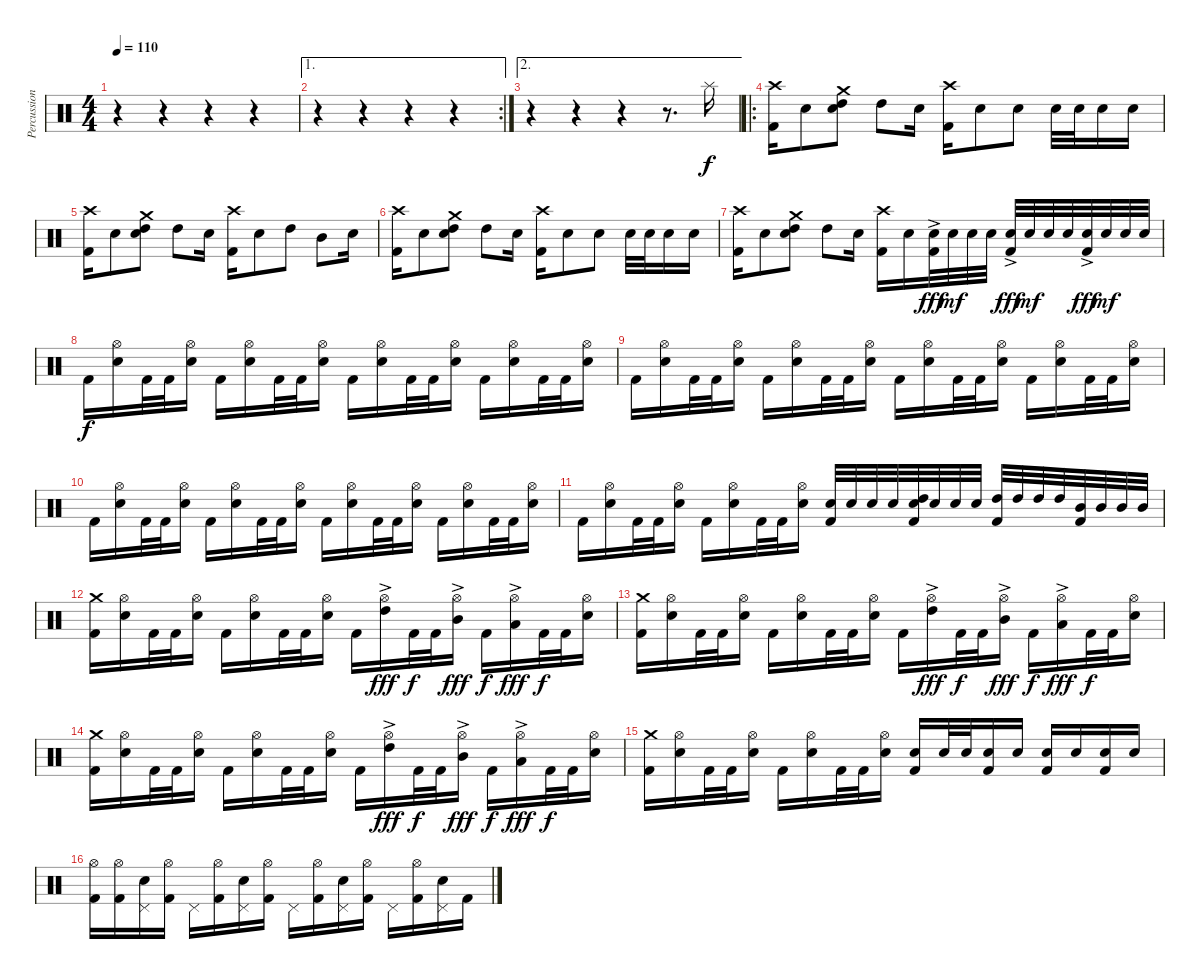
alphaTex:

\track ("Percussion" "Percussion") {instrument percussion}
\staff {score}
\articulation defaults
\ts (4 4)
\tempo 110
\clef neutral
\ks c
r.4{dy f} r.4 r.4 r.4 |
\ae 1
\rc 2
r.4 r.4 r.4 r.4 |
\ae 2
r.4 r.4 r.4 r.8{d} "Splash (hit)".16 |
\ro
("Crash high (hit)" "Kick (hit) 2").16 "Electric Snare (hit)".8 ("Crash medium (hit)" "High Tom (hit)" "Electric Snare (hit)").8 "High Tom (hit)".8 "Electric Snare (hit)".16 ("Crash high (hit)" "Kick (hit) 2").16 "Electric Snare (hit)".8 "Electric Snare (hit)".8 "Electric Snare (hit)".32 "Electric Snare (hit)".32 "Electric Snare (hit)".16 "Electric Snare (hit)".16 |
("Crash high (hit)" "Kick (hit) 2").16 "Electric Snare (hit)".8 ("Crash medium (hit)" "High Tom (hit)" "Electric Snare (hit)").8 "High Tom (hit)".8 "Electric Snare (hit)".16 ("Crash high (hit)" "Kick (hit) 2").16 "Electric Snare (hit)".8 "High Tom (hit)".8 "Mid Tom (hit)".8 "Electric Snare (hit)".16 |
("Crash high (hit)" "Kick (hit) 2").16 "Electric Snare (hit)".8 ("Crash medium (hit)" "High Tom (hit)" "Electric Snare (hit)").8 "High Tom (hit)".8 "Electric Snare (hit)".16 ("Crash high (hit)" "Kick (hit) 2").16 "Electric Snare (hit)".8 "Electric Snare (hit)".8 "Electric Snare (hit)".32 "Electric Snare (hit)".32 "Electric Snare (hit)".16 "Electric Snare (hit)".16 |
("Crash high (hit)" "Kick (hit) 2").16 "Electric Snare (hit)".8 ("Crash medium (hit)" "High Tom (hit)" "Electric Snare (hit)").8 "High Tom (hit)".8 "Electric Snare (hit)".16 ("Crash high (hit)" "Kick (hit) 2").16 "Electric Snare (hit)".16 ("Electric Snare (hit)"{ac} "Kick (hit) 2").32{dy fff} "Electric Snare (hit)".32{dy mf} "Electric Snare (hit)".32 "Electric Snare (hit)".32 ("Electric Snare (hit)"{ac} "Kick (hit) 2").32{dy fff} "Electric Snare (hit)".32{dy mf} "Electric Snare (hit)".32 "Electric Snare (hit)".32 ("Electric Snare (hit)"{ac} "Kick (hit) 2").32{dy fff} "Electric Snare (hit)".32{dy mf} "Electric Snare (hit)".32 "Electric Snare (hit)".32 |
"Kick (hit) 2".16{dy f} ("Hi-Hat (open)" "Electric Snare (hit)").16 "Kick (hit) 2".32 "Kick (hit) 2".32 ("Hi-Hat (open)" "Electric Snare (hit)").16 "Kick (hit) 2".16 ("Hi-Hat (open)" "Electric Snare (hit)").16 "Kick (hit) 2".32 "Kick (hit) 2".32 ("Hi-Hat (open)" "Electric Snare (hit)").16 "Kick (hit) 2".16 ("Hi-Hat (open)" "Electric Snare (hit)").16 "Kick (hit) 2".32 "Kick (hit) 2".32 ("Hi-Hat (open)" "Electric Snare (hit)").16 "Kick (hit) 2".16 ("Hi-Hat (open)" "Electric Snare (hit)").16 "Kick (hit) 2".32 "Kick (hit) 2".32 ("Hi-Hat (open)" "Electric Snare (hit)").16 |
"Kick (hit) 2".16 ("Hi-Hat (open)" "Electric Snare (hit)").16 "Kick (hit) 2".32 "Kick (hit) 2".32 ("Hi-Hat (open)" "Electric Snare (hit)").16 "Kick (hit) 2".16 ("Hi-Hat (open)" "Electric Snare (hit)").16 "Kick (hit) 2".32 "Kick (hit) 2".32 ("Hi-Hat (open)" "Electric Snare (hit)").16 "Kick (hit) 2".16 ("Hi-Hat (open)" "Electric Snare (hit)").16 "Kick (hit) 2".32 "Kick (hit) 2".32 ("Hi-Hat (open)" "Electric Snare (hit)").16 "Kick (hit) 2".16 ("Hi-Hat (open)" "Electric Snare (hit)").16 "Kick (hit) 2".32 "Kick (hit) 2".32 ("Hi-Hat (open)" "Electric Snare (hit)").16 |
"Kick (hit) 2".16 ("Hi-Hat (open)" "Electric Snare (hit)").16 "Kick (hit) 2".32 "Kick (hit) 2".32 ("Hi-Hat (open)" "Electric Snare (hit)").16 "Kick (hit) 2".16 ("Hi-Hat (open)" "Electric Snare (hit)").16 "Kick (hit) 2".32 "Kick (hit) 2".32 ("Hi-Hat (open)" "Electric Snare (hit)").16 "Kick (hit) 2".16 ("Hi-Hat (open)" "Electric Snare (hit)").16 "Kick (hit) 2".32 "Kick (hit) 2".32 ("Hi-Hat (open)" "Electric Snare (hit)").16 "Kick (hit) 2".16 ("Hi-Hat (open)" "Electric Snare (hit)").16 "Kick (hit) 2".32 "Kick (hit) 2".32 ("Hi-Hat (open)" "Electric Snare (hit)").16 |
"Kick (hit) 2".16 ("Hi-Hat (open)" "Electric Snare (hit)").16 "Kick (hit) 2".32 "Kick (hit) 2".32 ("Hi-Hat (open)" "Electric Snare (hit)").16 "Kick (hit) 2".16 ("Hi-Hat (open)" "Electric Snare (hit)").16 "Kick (hit) 2".32 "Kick (hit) 2".32 ("Hi-Hat (open)" "Electric Snare (hit)").16 ("Electric Snare (hit)" "Kick (hit) 2").32 "Electric Snare (hit)".32 "Electric Snare (hit)".32 "Electric Snare (hit)".32 ("High Tom (hit)" "Electric Snare (hit)" "Kick (hit) 2").32 "Electric Snare (hit)".32 "Electric Snare (hit)".32 "Electric Snare (hit)".32 ("High Tom (hit)" "Kick (hit) 2").32 "High Tom (hit)".32 "High Tom (hit)".32 "High Tom (hit)".32 ("Mid Tom (hit)" "Kick (hit) 2").32 "Mid Tom (hit)".32 "Mid Tom (hit)".32 "Mid Tom (hit)".32 |
("Crash medium (hit)" "Kick (hit) 2").16 ("Hi-Hat (open)" "Electric Snare (hit)").16 "Kick (hit) 2".32 "Kick (hit) 2".32 ("Hi-Hat (open)" "Electric Snare (hit)").16 "Kick (hit) 2".16 ("Hi-Hat (open)" "Electric Snare (hit)").16 "Kick (hit) 2".32 "Kick (hit) 2".32 ("Hi-Hat (open)" "Electric Snare (hit)").16 "Kick (hit) 2".16 ("Hi-Hat (open)" "High Tom (hit)"{ac}).16{dy fff} "Kick (hit) 2".32{dy f} "Kick (hit) 2".32 ("Hi-Hat (open)" "Mid Tom (hit)"{ac}).16{dy fff} "Kick (hit) 2".16{dy f} ("Hi-Hat (open)" "Low Tom (hit)"{ac}).16{dy fff} "Kick (hit) 2".32{dy f} "Kick (hit) 2".32 ("Hi-Hat (open)" "Electric Snare (hit)").16 |
("Crash medium (hit)" "Kick (hit) 2").16 ("Hi-Hat (open)" "Electric Snare (hit)").16 "Kick (hit) 2".32 "Kick (hit) 2".32 ("Hi-Hat (open)" "Electric Snare (hit)").16 "Kick (hit) 2".16 ("Hi-Hat (open)" "Electric Snare (hit)").16 "Kick (hit) 2".32 "Kick (hit) 2".32 ("Hi-Hat (open)" "Electric Snare (hit)").16 "Kick (hit) 2".16 ("Hi-Hat (open)" "High Tom (hit)"{ac}).16{dy fff} "Kick (hit) 2".32{dy f} "Kick (hit) 2".32 ("Hi-Hat (open)" "Mid Tom (hit)"{ac}).16{dy fff} "Kick (hit) 2".16{dy f} ("Hi-Hat (open)" "Low Tom (hit)"{ac}).16{dy fff} "Kick (hit) 2".32{dy f} "Kick (hit) 2".32 ("Hi-Hat (open)" "Electric Snare (hit)").16 |
("Crash medium (hit)" "Kick (hit) 2").16 ("Hi-Hat (open)" "Electric Snare (hit)").16 "Kick (hit) 2".32 "Kick (hit) 2".32 ("Hi-Hat (open)" "Electric Snare (hit)").16 "Kick (hit) 2".16 ("Hi-Hat (open)" "Electric Snare (hit)").16 "Kick (hit) 2".32 "Kick (hit) 2".32 ("Hi-Hat (open)" "Electric Snare (hit)").16 "Kick (hit) 2".16 ("Hi-Hat (open)" "High Tom (hit)"{ac}).16{dy fff} "Kick (hit) 2".32{dy f} "Kick (hit) 2".32 ("Hi-Hat (open)" "Mid Tom (hit)"{ac}).16{dy fff} "Kick (hit) 2".16{dy f} ("Hi-Hat (open)" "Low Tom (hit)"{ac}).16{dy fff} "Kick (hit) 2".32{dy f} "Kick (hit) 2".32 ("Hi-Hat (open)" "Electric Snare (hit)").16 |
("Crash medium (hit)" "Kick (hit) 2").16 ("Hi-Hat (open)" "Electric Snare (hit)").16 "Kick (hit) 2".32 "Kick (hit) 2".32 ("Hi-Hat (open)" "Electric Snare (hit)").16 "Kick (hit) 2".16 ("Hi-Hat (open)" "Electric Snare (hit)").16 "Kick (hit) 2".32 "Kick (hit) 2".32 ("Hi-Hat (open)" "Electric Snare (hit)").16 ("Electric Snare (hit)" "Kick (hit) 2").16 "Electric Snare (hit)".32 "Electric Snare (hit)".32 ("Electric Snare (hit)" "Kick (hit) 2").16 "Electric Snare (hit)".16 ("Electric Snare (hit)" "Kick (hit) 2").16 "Electric Snare (hit)".16 ("Electric Snare (hit)" "Kick (hit) 2").16 "Electric Snare (hit)".16 |
("Hi-Hat (open)" "Kick (hit) 2").16 ("Hi-Hat (open)" "Kick (hit) 2").16 ("Pedal Hi-Hat (hit)" "Electric Snare (hit)").16 ("Hi-Hat (open)" "Kick (hit) 2").16 "Pedal Hi-Hat (hit)".16 ("Hi-Hat (open)" "Kick (hit) 2").16 ("Pedal Hi-Hat (hit)" "Electric Snare (hit)").16 ("Hi-Hat (open)" "Kick (hit) 2").16 "Pedal Hi-Hat (hit)".16 ("Hi-Hat (open)" "Kick (hit) 2").16 ("Pedal Hi-Hat (hit)" "Electric Snare (hit)").16 ("Hi-Hat (open)" "Kick (hit) 2").16 "Pedal Hi-Hat (hit)".16 ("Hi-Hat (open)" "Kick (hit) 2").16 ("Pedal Hi-Hat (hit)" "Electric Snare (hit)").16 "Kick (hit) 2".16
